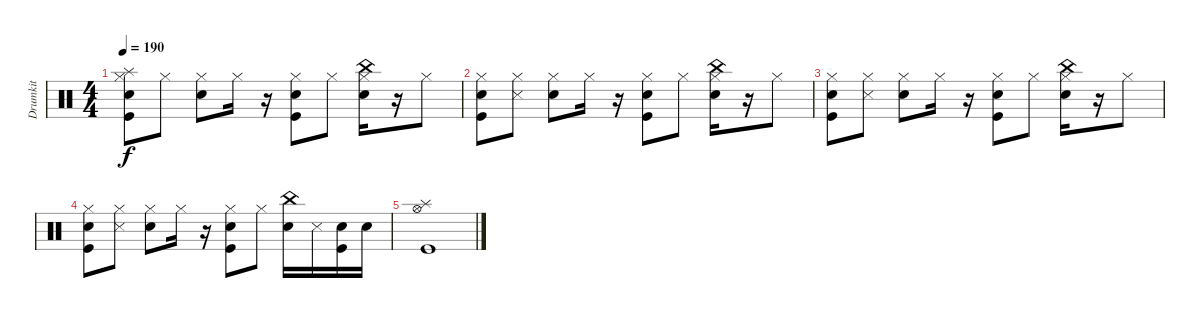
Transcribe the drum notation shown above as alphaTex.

\track ("Drumkit" "Drumkit") {instrument percussion}
\staff {score}
\articulation defaults
\ts (4 4)
\tempo 190
\clef neutral
\ks c
("Kick (hit)" "Splash (hit)" "Hi-Hat (closed)" "Snare (hit) 2").8{dy f} "Hi-Hat (closed)".8 ("Snare (hit) 2" "Hi-Hat (closed)").8 "Hi-Hat (closed)".16 r.16 ("Kick (hit)" "Snare (hit) 2" "Hi-Hat (closed)").8 "Hi-Hat (closed)".8 ("Snare (hit) 2" "China (hit)" "Hi-Hat (closed)").16 r.16 "Hi-Hat (closed)".8 |
("Kick (hit)" "Hi-Hat (closed)" "Snare (hit) 2").8 ("Snare (side stick) 3" "Hi-Hat (closed)").8 ("Snare (hit) 2" "Hi-Hat (closed)").8 "Hi-Hat (closed)".16 r.16 ("Kick (hit)" "Snare (hit) 2" "Hi-Hat (closed)").8 "Hi-Hat (closed)".8 ("Snare (hit) 2" "China (hit)" "Hi-Hat (closed)").16 r.16 "Hi-Hat (closed)".8 |
("Kick (hit)" "Hi-Hat (closed)" "Snare (hit) 2").8 ("Snare (side stick) 3" "Hi-Hat (closed)").8 ("Snare (hit) 2" "Hi-Hat (closed)").8 "Hi-Hat (closed)".16 r.16 ("Kick (hit)" "Snare (hit) 2" "Hi-Hat (closed)").8 "Hi-Hat (closed)".8 ("Snare (hit) 2" "China (hit)" "Hi-Hat (closed)").16 r.16 "Hi-Hat (closed)".8 |
("Kick (hit)" "Hi-Hat (closed)" "Snare (hit) 2").8 ("Snare (side stick) 3" "Hi-Hat (closed)").8 ("Snare (hit) 2" "Hi-Hat (closed)").8 "Hi-Hat (closed)".16 r.16 ("Kick (hit)" "Snare (hit) 2" "Hi-Hat (closed)").8 "Hi-Hat (closed)".8 ("Snare (hit) 2" "China (hit)").16 "Snare (side stick) 3".16 ("Kick (hit)" "Snare (hit) 2").16 "Snare (hit) 2".16 |
("Kick (hit)" "Splash (hit)" "Hi-Hat (open)").1
